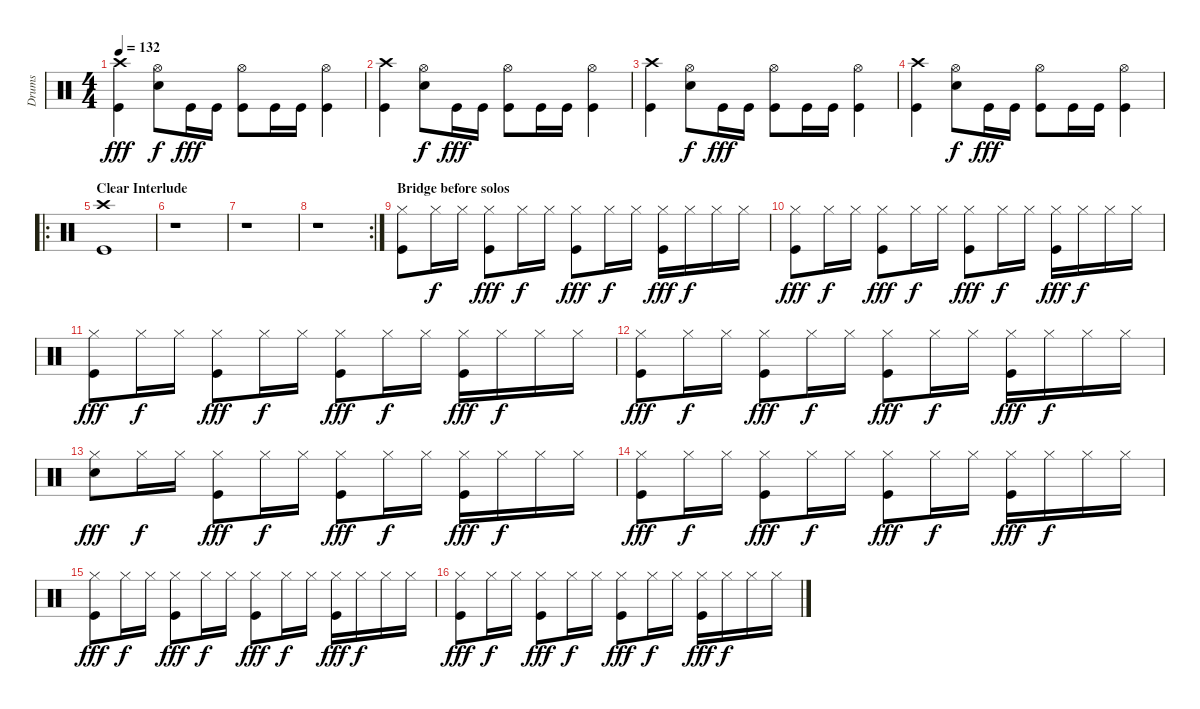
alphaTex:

\track ("Drums" "Drums") {instrument percussion}
\staff {score}
\articulation defaults
\ts (4 4)
\tempo 132
\clef neutral
\ks c
("Crash high (hit)" "Kick (hit)").4{dy fff} ("Hi-Hat (open)" "Snare (hit) 2").8{dy f} "Kick (hit)".16{dy fff} "Kick (hit)".16 ("Hi-Hat (open)" "Kick (hit)").8 "Kick (hit)".16 "Kick (hit)".16 ("Hi-Hat (open)" "Kick (hit)").4 |
("Crash high (hit)" "Kick (hit)").4 ("Hi-Hat (open)" "Snare (hit) 2").8{dy f} "Kick (hit)".16{dy fff} "Kick (hit)".16 ("Hi-Hat (open)" "Kick (hit)").8 "Kick (hit)".16 "Kick (hit)".16 ("Hi-Hat (open)" "Kick (hit)").4 |
("Crash high (hit)" "Kick (hit)").4 ("Hi-Hat (open)" "Snare (hit) 2").8{dy f} "Kick (hit)".16{dy fff} "Kick (hit)".16 ("Hi-Hat (open)" "Kick (hit)").8 "Kick (hit)".16 "Kick (hit)".16 ("Hi-Hat (open)" "Kick (hit)").4 |
("Crash high (hit)" "Kick (hit)").4 ("Hi-Hat (open)" "Snare (hit) 2").8{dy f} "Kick (hit)".16{dy fff} "Kick (hit)".16 ("Hi-Hat (open)" "Kick (hit)").8 "Kick (hit)".16 "Kick (hit)".16 ("Hi-Hat (open)" "Kick (hit)").4 |
\ro
\section ("" "Clear Interlude")
("Crash high (hit)" "Kick (hit)").1 |
r.1 |
r.1 |
\rc 2
r.1 |
\section ("" "Bridge before solos")
("Hi-Hat (closed)" "Kick (hit)").8 "Hi-Hat (closed)".16{dy f} "Hi-Hat (closed)".16 ("Hi-Hat (closed)" "Kick (hit)").8{dy fff} "Hi-Hat (closed)".16{dy f} "Hi-Hat (closed)".16 ("Hi-Hat (closed)" "Kick (hit)").8{dy fff} "Hi-Hat (closed)".16{dy f} "Hi-Hat (closed)".16 ("Hi-Hat (closed)" "Kick (hit)").16{dy fff} "Hi-Hat (closed)".16{dy f} "Hi-Hat (closed)".16 "Hi-Hat (closed)".16 |
("Hi-Hat (closed)" "Kick (hit)").8{dy fff} "Hi-Hat (closed)".16{dy f} "Hi-Hat (closed)".16 ("Hi-Hat (closed)" "Kick (hit)").8{dy fff} "Hi-Hat (closed)".16{dy f} "Hi-Hat (closed)".16 ("Hi-Hat (closed)" "Kick (hit)").8{dy fff} "Hi-Hat (closed)".16{dy f} "Hi-Hat (closed)".16 ("Hi-Hat (closed)" "Kick (hit)").16{dy fff} "Hi-Hat (closed)".16{dy f} "Hi-Hat (closed)".16 "Hi-Hat (closed)".16 |
("Hi-Hat (closed)" "Kick (hit)").8{dy fff} "Hi-Hat (closed)".16{dy f} "Hi-Hat (closed)".16 ("Hi-Hat (closed)" "Kick (hit)").8{dy fff} "Hi-Hat (closed)".16{dy f} "Hi-Hat (closed)".16 ("Hi-Hat (closed)" "Kick (hit)").8{dy fff} "Hi-Hat (closed)".16{dy f} "Hi-Hat (closed)".16 ("Hi-Hat (closed)" "Kick (hit)").16{dy fff} "Hi-Hat (closed)".16{dy f} "Hi-Hat (closed)".16 "Hi-Hat (closed)".16 |
("Hi-Hat (closed)" "Kick (hit)").8{dy fff} "Hi-Hat (closed)".16{dy f} "Hi-Hat (closed)".16 ("Hi-Hat (closed)" "Kick (hit)").8{dy fff} "Hi-Hat (closed)".16{dy f} "Hi-Hat (closed)".16 ("Hi-Hat (closed)" "Kick (hit)").8{dy fff} "Hi-Hat (closed)".16{dy f} "Hi-Hat (closed)".16 ("Hi-Hat (closed)" "Kick (hit)").16{dy fff} "Hi-Hat (closed)".16{dy f} "Hi-Hat (closed)".16 "Hi-Hat (closed)".16 |
("Hi-Hat (closed)" "Snare (hit) 2").8{dy fff} "Hi-Hat (closed)".16{dy f} "Hi-Hat (closed)".16 ("Hi-Hat (closed)" "Kick (hit)").8{dy fff} "Hi-Hat (closed)".16{dy f} "Hi-Hat (closed)".16 ("Hi-Hat (closed)" "Kick (hit)").8{dy fff} "Hi-Hat (closed)".16{dy f} "Hi-Hat (closed)".16 ("Hi-Hat (closed)" "Kick (hit)").16{dy fff} "Hi-Hat (closed)".16{dy f} "Hi-Hat (closed)".16 "Hi-Hat (closed)".16 |
("Hi-Hat (closed)" "Kick (hit)").8{dy fff} "Hi-Hat (closed)".16{dy f} "Hi-Hat (closed)".16 ("Hi-Hat (closed)" "Kick (hit)").8{dy fff} "Hi-Hat (closed)".16{dy f} "Hi-Hat (closed)".16 ("Hi-Hat (closed)" "Kick (hit)").8{dy fff} "Hi-Hat (closed)".16{dy f} "Hi-Hat (closed)".16 ("Hi-Hat (closed)" "Kick (hit)").16{dy fff} "Hi-Hat (closed)".16{dy f} "Hi-Hat (closed)".16 "Hi-Hat (closed)".16 |
("Hi-Hat (closed)" "Kick (hit)").8{dy fff} "Hi-Hat (closed)".16{dy f} "Hi-Hat (closed)".16 ("Hi-Hat (closed)" "Kick (hit)").8{dy fff} "Hi-Hat (closed)".16{dy f} "Hi-Hat (closed)".16 ("Hi-Hat (closed)" "Kick (hit)").8{dy fff} "Hi-Hat (closed)".16{dy f} "Hi-Hat (closed)".16 ("Hi-Hat (closed)" "Kick (hit)").16{dy fff} "Hi-Hat (closed)".16{dy f} "Hi-Hat (closed)".16 "Hi-Hat (closed)".16 |
("Hi-Hat (closed)" "Kick (hit)").8{dy fff} "Hi-Hat (closed)".16{dy f} "Hi-Hat (closed)".16 ("Hi-Hat (closed)" "Kick (hit)").8{dy fff} "Hi-Hat (closed)".16{dy f} "Hi-Hat (closed)".16 ("Hi-Hat (closed)" "Kick (hit)").8{dy fff} "Hi-Hat (closed)".16{dy f} "Hi-Hat (closed)".16 ("Hi-Hat (closed)" "Kick (hit)").16{dy fff} "Hi-Hat (closed)".16{dy f} "Hi-Hat (closed)".16 "Hi-Hat (closed)".16
